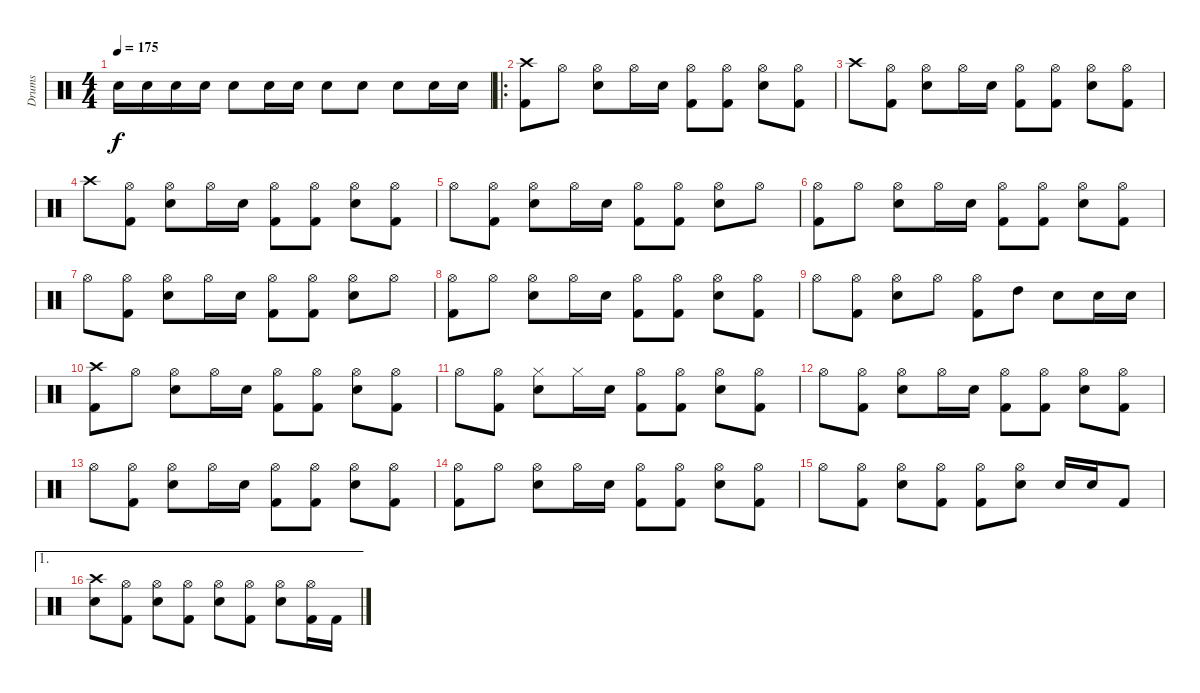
\track ("Drums" "Drums") {instrument percussion}
\staff {score}
\articulation defaults
\ts (4 4)
\tempo 175
\clef neutral
\ks c "Snare (hit) 2".16{dy f} "Snare (hit) 2".16 "Snare (hit) 2".16 "Snare (hit) 2".16 "Snare (hit) 2".8 "Snare (hit) 2".16 "Snare (hit) 2".16 "Snare (hit) 2".8 "Snare (hit) 2".8 "Snare (hit) 2".8 "Snare (hit) 2".16 "Snare (hit) 2".16
|
\ro
("Crash high (hit)" "Kick (hit) 2").8 "Hi-Hat (open)".8 ("Hi-Hat (open)" "Snare (hit) 2").8 "Hi-Hat (open)".16 "Snare (hit) 2".16 ("Hi-Hat (open)" "Kick (hit) 2").8 ("Hi-Hat (open)" "Kick (hit) 2").8 ("Hi-Hat (open)" "Snare (hit) 2").8 ("Hi-Hat (open)" "Kick (hit) 2").8 |
"Crash high (hit)".8 ("Hi-Hat (open)" "Kick (hit) 2").8 ("Hi-Hat (open)" "Snare (hit) 2").8 "Hi-Hat (open)".16 "Snare (hit) 2".16 ("Hi-Hat (open)" "Kick (hit) 2").8 ("Hi-Hat (open)" "Kick (hit) 2").8 ("Hi-Hat (open)" "Snare (hit) 2").8 ("Hi-Hat (open)" "Kick (hit) 2").8 |
"Crash high (hit)".8 ("Hi-Hat (open)" "Kick (hit) 2").8 ("Hi-Hat (open)" "Snare (hit) 2").8 "Hi-Hat (open)".16 "Snare (hit) 2".16 ("Hi-Hat (open)" "Kick (hit) 2").8 ("Hi-Hat (open)" "Kick (hit) 2").8 ("Hi-Hat (open)" "Snare (hit) 2").8 ("Hi-Hat (open)" "Kick (hit) 2").8 |
"Hi-Hat (open)".8 ("Hi-Hat (open)" "Kick (hit) 2").8 ("Hi-Hat (open)" "Snare (hit) 2").8 "Hi-Hat (open)".16 "Snare (hit) 2".16 ("Hi-Hat (open)" "Kick (hit) 2").8 ("Hi-Hat (open)" "Kick (hit) 2").8 ("Hi-Hat (open)" "Snare (hit) 2").8 "Hi-Hat (open)".8 |
("Hi-Hat (open)" "Kick (hit) 2").8 "Hi-Hat (open)".8 ("Hi-Hat (open)" "Snare (hit) 2").8 "Hi-Hat (open)".16 "Snare (hit) 2".16 ("Hi-Hat (open)" "Kick (hit) 2").8 ("Hi-Hat (open)" "Kick (hit) 2").8 ("Hi-Hat (open)" "Snare (hit) 2").8 ("Hi-Hat (open)" "Kick (hit) 2").8 |
"Hi-Hat (open)".8 ("Hi-Hat (open)" "Kick (hit) 2").8 ("Hi-Hat (open)" "Snare (hit) 2").8 "Hi-Hat (open)".16 "Snare (hit) 2".16 ("Hi-Hat (open)" "Kick (hit) 2").8 ("Hi-Hat (open)" "Kick (hit) 2").8 ("Hi-Hat (open)" "Snare (hit) 2").8 "Hi-Hat (open)".8 |
("Hi-Hat (open)" "Kick (hit) 2").8 "Hi-Hat (open)".8 ("Hi-Hat (open)" "Snare (hit) 2").8 "Hi-Hat (open)".16 "Snare (hit) 2".16 ("Hi-Hat (open)" "Kick (hit) 2").8 ("Hi-Hat (open)" "Kick (hit) 2").8 ("Hi-Hat (open)" "Snare (hit) 2").8 ("Hi-Hat (open)" "Kick (hit) 2").8 |
"Hi-Hat (open)".8 ("Hi-Hat (open)" "Kick (hit) 2").8 ("Hi-Hat (open)" "Snare (hit) 2").8 "Hi-Hat (open)".8 ("Hi-Hat (open)" "Kick (hit) 2").8 "High Tom (hit)".8 "Snare (hit) 2".8 "Snare (hit) 2".16 "Snare (hit) 2".16 |
("Crash high (hit)" "Kick (hit) 2").8 "Hi-Hat (open)".8 ("Hi-Hat (open)" "Snare (hit) 2").8 "Hi-Hat (open)".16 "Snare (hit) 2".16 ("Hi-Hat (open)" "Kick (hit) 2").8 ("Hi-Hat (open)" "Kick (hit) 2").8 ("Hi-Hat (open)" "Snare (hit) 2").8 ("Hi-Hat (open)" "Kick (hit) 2").8 |
"Hi-Hat (open)".8 ("Hi-Hat (open)" "Kick (hit) 2").8 ("Hi-Hat (closed)" "Snare (hit) 2").8 "Hi-Hat (closed)".16 "Snare (hit) 2".16 ("Hi-Hat (open)" "Kick (hit) 2").8 ("Hi-Hat (open)" "Kick (hit) 2").8 ("Hi-Hat (open)" "Snare (hit) 2").8 ("Hi-Hat (open)" "Kick (hit) 2").8 |
"Hi-Hat (open)".8 ("Hi-Hat (open)" "Kick (hit) 2").8 ("Hi-Hat (open)" "Snare (hit) 2").8 "Hi-Hat (open)".16 "Snare (hit) 2".16 ("Hi-Hat (open)" "Kick (hit) 2").8 ("Hi-Hat (open)" "Kick (hit) 2").8 ("Hi-Hat (open)" "Snare (hit) 2").8 ("Hi-Hat (open)" "Kick (hit) 2").8 |
"Hi-Hat (open)".8 ("Hi-Hat (open)" "Kick (hit) 2").8 ("Hi-Hat (open)" "Snare (hit) 2").8 "Hi-Hat (open)".16 "Snare (hit) 2".16 ("Hi-Hat (open)" "Kick (hit) 2").8 ("Hi-Hat (open)" "Kick (hit) 2").8 ("Hi-Hat (open)" "Snare (hit) 2").8 ("Hi-Hat (open)" "Kick (hit) 2").8 |
("Hi-Hat (open)" "Kick (hit) 2").8 "Hi-Hat (open)".8 ("Hi-Hat (open)" "Snare (hit) 2").8 "Hi-Hat (open)".16 "Snare (hit) 2".16 ("Hi-Hat (open)" "Kick (hit) 2").8 ("Hi-Hat (open)" "Kick (hit) 2").8 ("Hi-Hat (open)" "Snare (hit) 2").8 ("Hi-Hat (open)" "Kick (hit) 2").8 |
"Hi-Hat (open)".8 ("Hi-Hat (open)" "Kick (hit) 2").8 ("Hi-Hat (open)" "Snare (hit) 2").8 ("Hi-Hat (open)" "Kick (hit) 2").8 ("Hi-Hat (open)" "Kick (hit) 2").8 ("Hi-Hat (open)" "Snare (hit) 2").8 "Snare (hit) 2".16 "Snare (hit) 2".16 "Kick (hit) 2".8 |
\ae 1
("Crash high (hit)" "Snare (hit) 2").8 ("Hi-Hat (open)" "Kick (hit) 2").8 ("Hi-Hat (open)" "Snare (hit) 2").8 ("Hi-Hat (open)" "Kick (hit) 2").8 ("Hi-Hat (open)" "Snare (hit) 2").8 ("Hi-Hat (open)" "Kick (hit) 2").8 ("Hi-Hat (open)" "Snare (hit) 2").8 ("Hi-Hat (open)" "Kick (hit) 2").16 "Kick (hit) 2".16
